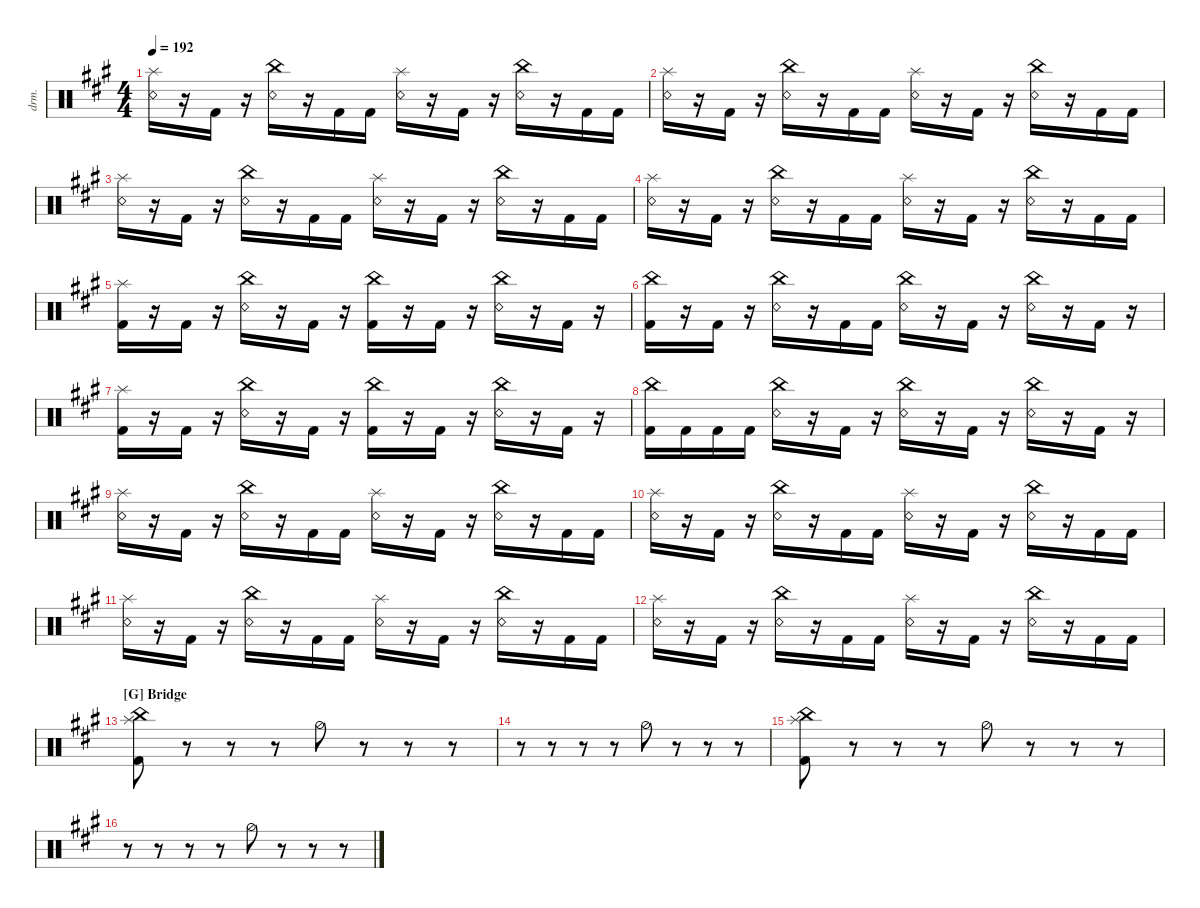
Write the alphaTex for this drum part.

\defaultSystemsLayout 4
\hideDynamics
\bracketExtendMode nobrackets
\otherSystemsTrackNameOrientation horizontal
\track ("Drumkit" "drm.") {instrument percussion}
\staff {score}
\articulation defaults
\ts (4 4)
\tempo 192
\clef neutral
\ks a
("Snare (rim shot)"{acc forcenatural} "Splash (hit)"{acc forcenatural}).16{dy ff beam Down} r.16{beam Down} "Kick (hit) 2"{acc forcenatural}.16{beam Down} r.16{beam Down} ("China (hit)"{acc forcenatural} "Snare (rim shot)"{acc forcenatural}).16{beam Down} r.16{beam Down} "Kick (hit) 2"{acc forcenatural}.16{beam Down} "Kick (hit) 2"{acc forcenatural}.16{beam Down} ("Snare (rim shot)"{acc forcenatural} "Splash (hit)"{acc forcenatural}).16{beam Down} r.16{beam Down} "Kick (hit) 2"{acc forcenatural}.16{beam Down} r.16{beam Down} ("China (hit)"{acc forcenatural} "Snare (rim shot)"{acc forcenatural}).16{beam Down} r.16{beam Down} "Kick (hit) 2"{acc forcenatural}.16{beam Down} "Kick (hit) 2"{acc forcenatural}.16{beam Down} |
("Snare (rim shot)"{acc forcenatural} "Splash (hit)"{acc forcenatural}).16{beam Down} r.16{beam Down} "Kick (hit) 2"{acc forcenatural}.16{beam Down} r.16{beam Down} ("China (hit)"{acc forcenatural} "Snare (rim shot)"{acc forcenatural}).16{beam Down} r.16{beam Down} "Kick (hit) 2"{acc forcenatural}.16{beam Down} "Kick (hit) 2"{acc forcenatural}.16{beam Down} ("Snare (rim shot)"{acc forcenatural} "Splash (hit)"{acc forcenatural}).16{beam Down} r.16{beam Down} "Kick (hit) 2"{acc forcenatural}.16{beam Down} r.16{beam Down} ("China (hit)"{acc forcenatural} "Snare (rim shot)"{acc forcenatural}).16{beam Down} r.16{beam Down} "Kick (hit) 2"{acc forcenatural}.16{beam Down} "Kick (hit) 2"{acc forcenatural}.16{beam Down} |
("Snare (rim shot)"{acc forcenatural} "Splash (hit)"{acc forcenatural}).16{beam Down} r.16{beam Down} "Kick (hit) 2"{acc forcenatural}.16{beam Down} r.16{beam Down} ("China (hit)"{acc forcenatural} "Snare (rim shot)"{acc forcenatural}).16{beam Down} r.16{beam Down} "Kick (hit) 2"{acc forcenatural}.16{beam Down} "Kick (hit) 2"{acc forcenatural}.16{beam Down} ("Snare (rim shot)"{acc forcenatural} "Splash (hit)"{acc forcenatural}).16{beam Down} r.16{beam Down} "Kick (hit) 2"{acc forcenatural}.16{beam Down} r.16{beam Down} ("China (hit)"{acc forcenatural} "Snare (rim shot)"{acc forcenatural}).16{beam Down} r.16{beam Down} "Kick (hit) 2"{acc forcenatural}.16{beam Down} "Kick (hit) 2"{acc forcenatural}.16{beam Down} |
("Snare (rim shot)"{acc forcenatural} "Splash (hit)"{acc forcenatural}).16{beam Down} r.16{beam Down} "Kick (hit) 2"{acc forcenatural}.16{beam Down} r.16{beam Down} ("China (hit)"{acc forcenatural} "Snare (rim shot)"{acc forcenatural}).16{beam Down} r.16{beam Down} "Kick (hit) 2"{acc forcenatural}.16{beam Down} "Kick (hit) 2"{acc forcenatural}.16{beam Down} ("Snare (rim shot)"{acc forcenatural} "Splash (hit)"{acc forcenatural}).16{beam Down} r.16{beam Down} "Kick (hit) 2"{acc forcenatural}.16{beam Down} r.16{beam Down} ("China (hit)"{acc forcenatural} "Snare (rim shot)"{acc forcenatural}).16{beam Down} r.16{beam Down} "Kick (hit) 2"{acc forcenatural}.16{beam Down} "Kick (hit) 2"{acc forcenatural}.16{beam Down} |
("Kick (hit) 2"{acc forcenatural} "Splash (hit)"{acc forcenatural}).16{beam Down} r.16{beam Down} "Kick (hit) 2"{acc forcenatural}.16{beam Down} r.16{beam Down} ("China (hit)"{acc forcenatural} "Snare (rim shot)"{acc forcenatural}).16{beam Down} r.16{beam Down} "Kick (hit) 2"{acc forcenatural}.16{beam Down} r.16{beam Down} ("China (hit)"{acc forcenatural} "Kick (hit) 2"{acc forcenatural}).16{beam Down} r.16{beam Down} "Kick (hit) 2"{acc forcenatural}.16{beam Down} r.16{beam Down} ("China (hit)"{acc forcenatural} "Snare (rim shot)"{acc forcenatural}).16{beam Down} r.16{beam Down} "Kick (hit) 2"{acc forcenatural}.16{beam Down} r.16{beam Down} |
("Kick (hit) 2"{acc forcenatural} "China (hit)"{acc forcenatural}).16{beam Down} r.16{beam Down} "Kick (hit) 2"{acc forcenatural}.16{beam Down} r.16{beam Down} ("China (hit)"{acc forcenatural} "Snare (rim shot)"{acc forcenatural}).16{beam Down} r.16{beam Down} "Kick (hit) 2"{acc forcenatural}.16{beam Down} "Kick (hit) 2"{acc forcenatural}.16{beam Down} ("China (hit)"{acc forcenatural} "Snare (rim shot)"{acc forcenatural}).16{beam Down} r.16{beam Down} "Kick (hit) 2"{acc forcenatural}.16{beam Down} r.16{beam Down} ("China (hit)"{acc forcenatural} "Snare (rim shot)"{acc forcenatural}).16{beam Down} r.16{beam Down} "Kick (hit) 2"{acc forcenatural}.16{beam Down} r.16{beam Down} |
("Kick (hit) 2"{acc forcenatural} "Splash (hit)"{acc forcenatural}).16{beam Down} r.16{beam Down} "Kick (hit) 2"{acc forcenatural}.16{beam Down} r.16{beam Down} ("China (hit)"{acc forcenatural} "Snare (rim shot)"{acc forcenatural}).16{beam Down} r.16{beam Down} "Kick (hit) 2"{acc forcenatural}.16{beam Down} r.16{beam Down} ("China (hit)"{acc forcenatural} "Kick (hit) 2"{acc forcenatural}).16{beam Down} r.16{beam Down} "Kick (hit) 2"{acc forcenatural}.16{beam Down} r.16{beam Down} ("China (hit)"{acc forcenatural} "Snare (rim shot)"{acc forcenatural}).16{beam Down} r.16{beam Down} "Kick (hit) 2"{acc forcenatural}.16{beam Down} r.16{beam Down} |
("Kick (hit) 2"{acc forcenatural} "China (hit)"{acc forcenatural}).16{beam Down} "Kick (hit) 2"{acc forcenatural}.16{beam Down} "Kick (hit) 2"{acc forcenatural}.16{beam Down} "Kick (hit) 2"{acc forcenatural}.16{beam Down} ("China (hit)"{acc forcenatural} "Snare (rim shot)"{acc forcenatural}).16{beam Down} r.16{beam Down} "Kick (hit) 2"{acc forcenatural}.16{beam Down} r.16{beam Down} ("China (hit)"{acc forcenatural} "Snare (rim shot)"{acc forcenatural}).16{beam Down} r.16{beam Down} "Kick (hit) 2"{acc forcenatural}.16{beam Down} r.16{beam Down} ("China (hit)"{acc forcenatural} "Snare (rim shot)"{acc forcenatural}).16{beam Down} r.16{beam Down} "Kick (hit) 2"{acc forcenatural}.16{beam Down} r.16{beam Down} |
("Snare (rim shot)"{acc forcenatural} "Splash (hit)"{acc forcenatural}).16{beam Down} r.16{beam Down} "Kick (hit) 2"{acc forcenatural}.16{beam Down} r.16{beam Down} ("China (hit)"{acc forcenatural} "Snare (rim shot)"{acc forcenatural}).16{beam Down} r.16{beam Down} "Kick (hit) 2"{acc forcenatural}.16{beam Down} "Kick (hit) 2"{acc forcenatural}.16{beam Down} ("Snare (rim shot)"{acc forcenatural} "Splash (hit)"{acc forcenatural}).16{beam Down} r.16{beam Down} "Kick (hit) 2"{acc forcenatural}.16{beam Down} r.16{beam Down} ("China (hit)"{acc forcenatural} "Snare (rim shot)"{acc forcenatural}).16{beam Down} r.16{beam Down} "Kick (hit) 2"{acc forcenatural}.16{beam Down} "Kick (hit) 2"{acc forcenatural}.16{beam Down} |
("Snare (rim shot)"{acc forcenatural} "Splash (hit)"{acc forcenatural}).16{beam Down} r.16{beam Down} "Kick (hit) 2"{acc forcenatural}.16{beam Down} r.16{beam Down} ("China (hit)"{acc forcenatural} "Snare (rim shot)"{acc forcenatural}).16{beam Down} r.16{beam Down} "Kick (hit) 2"{acc forcenatural}.16{beam Down} "Kick (hit) 2"{acc forcenatural}.16{beam Down} ("Snare (rim shot)"{acc forcenatural} "Splash (hit)"{acc forcenatural}).16{beam Down} r.16{beam Down} "Kick (hit) 2"{acc forcenatural}.16{beam Down} r.16{beam Down} ("China (hit)"{acc forcenatural} "Snare (rim shot)"{acc forcenatural}).16{beam Down} r.16{beam Down} "Kick (hit) 2"{acc forcenatural}.16{beam Down} "Kick (hit) 2"{acc forcenatural}.16{beam Down} |
("Snare (rim shot)"{acc forcenatural} "Splash (hit)"{acc forcenatural}).16{beam Down} r.16{beam Down} "Kick (hit) 2"{acc forcenatural}.16{beam Down} r.16{beam Down} ("China (hit)"{acc forcenatural} "Snare (rim shot)"{acc forcenatural}).16{beam Down} r.16{beam Down} "Kick (hit) 2"{acc forcenatural}.16{beam Down} "Kick (hit) 2"{acc forcenatural}.16{beam Down} ("Snare (rim shot)"{acc forcenatural} "Splash (hit)"{acc forcenatural}).16{beam Down} r.16{beam Down} "Kick (hit) 2"{acc forcenatural}.16{beam Down} r.16{beam Down} ("China (hit)"{acc forcenatural} "Snare (rim shot)"{acc forcenatural}).16{beam Down} r.16{beam Down} "Kick (hit) 2"{acc forcenatural}.16{beam Down} "Kick (hit) 2"{acc forcenatural}.16{beam Down} |
("Snare (rim shot)"{acc forcenatural} "Splash (hit)"{acc forcenatural}).16{beam Down} r.16{beam Down} "Kick (hit) 2"{acc forcenatural}.16{beam Down} r.16{beam Down} ("China (hit)"{acc forcenatural} "Snare (rim shot)"{acc forcenatural}).16{beam Down} r.16{beam Down} "Kick (hit) 2"{acc forcenatural}.16{beam Down} "Kick (hit) 2"{acc forcenatural}.16{beam Down} ("Snare (rim shot)"{acc forcenatural} "Splash (hit)"{acc forcenatural}).16{beam Down} r.16{beam Down} "Kick (hit) 2"{acc forcenatural}.16{beam Down} r.16{beam Down} ("China (hit)"{acc forcenatural} "Snare (rim shot)"{acc forcenatural}).16{beam Down} r.16{beam Down} "Kick (hit) 2"{acc forcenatural}.16{beam Down} "Kick (hit) 2"{acc forcenatural}.16{beam Down} |
\section ("G" "Bridge")
("Kick (hit) 2"{acc forcenatural} "Splash (hit)"{acc forcenatural} "China (hit)"{acc forcenatural}).8{beam Down} r.8{beam Down} r.8{beam Down} r.8{beam Down} "Hi-Hat (half)"{acc forcenatural}.8{beam Down} r.8{beam Down} r.8{beam Down} r.8{beam Down} |
r.8{beam Down} r.8{beam Down} r.8{beam Down} r.8{beam Down} "Hi-Hat (half)"{acc forcenatural}.8{beam Down} r.8{beam Down} r.8{beam Down} r.8{beam Down} |
("Kick (hit) 2"{acc forcenatural} "Splash (hit)"{acc forcenatural} "China (hit)"{acc forcenatural}).8{beam Down} r.8{beam Down} r.8{beam Down} r.8{beam Down} "Hi-Hat (half)"{acc forcenatural}.8{beam Down} r.8{beam Down} r.8{beam Down} r.8{beam Down} |
r.8{beam Down} r.8{beam Down} r.8{beam Down} r.8{beam Down} "Hi-Hat (half)"{acc forcenatural}.8{beam Down} r.8{beam Down} r.8{beam Down} r.8{beam Down}
